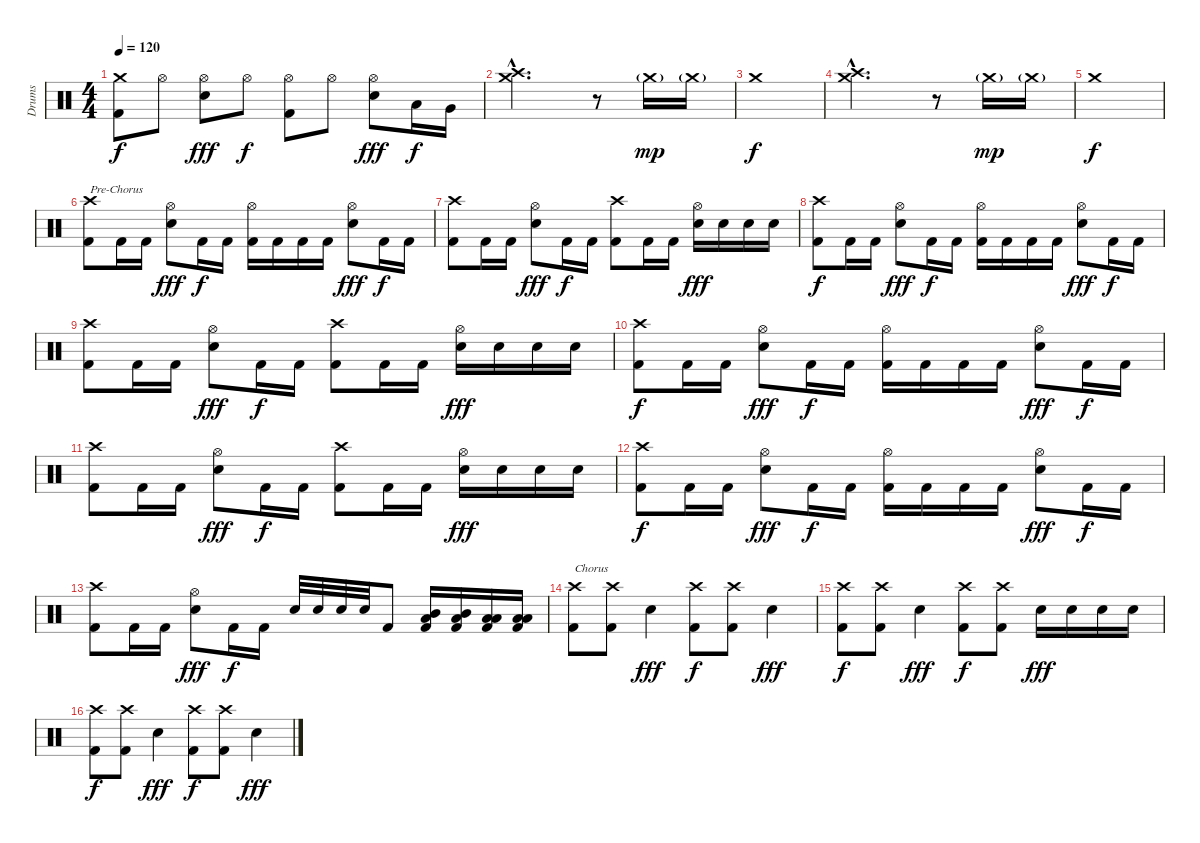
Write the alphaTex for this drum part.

\track ("Drums" "Drums") {instrument percussion}
\staff {score}
\articulation defaults
\ts (4 4)
\tempo 120
\clef neutral
\ks c
("Crash medium (hit)" "Kick (hit) 2").8{dy f} "Hi-Hat (open)".8 ("Hi-Hat (open)" "Snare (hit) 2").8{dy fff} "Hi-Hat (open)".8{dy f} ("Hi-Hat (open)" "Kick (hit) 2").8 "Hi-Hat (open)".8 ("Hi-Hat (open)" "Snare (hit) 2").8{dy fff} "Low Tom (hit)".16{dy f} "Very Low Tom (hit)".16 |
("Crash high (hit)"{hac} "Crash medium (hit)"{hac}).2{d} r.8 "Crash medium (hit)"{g}.16{dy mp} "Crash medium (hit)"{g}.16 |
"Crash medium (hit)".1{dy f} |
("Crash high (hit)"{hac} "Crash medium (hit)"{hac}).2{d} r.8 "Crash medium (hit)"{g}.16{dy mp} "Crash medium (hit)"{g}.16 |
"Crash medium (hit)".1{dy f} |
("Crash high (hit)" "Kick (hit) 2").8{txt "Pre-Chorus"} "Kick (hit) 2".16 "Kick (hit) 2".16 ("Hi-Hat (open)" "Snare (hit) 2").8{dy fff} "Kick (hit) 2".16{dy f} "Kick (hit) 2".16 ("Hi-Hat (open)" "Kick (hit) 2").16 "Kick (hit) 2".16 "Kick (hit) 2".16 "Kick (hit) 2".16 ("Hi-Hat (open)" "Snare (hit) 2").8{dy fff} "Kick (hit) 2".16{dy f} "Kick (hit) 2".16 |
("Crash high (hit)" "Kick (hit) 2").8 "Kick (hit) 2".16 "Kick (hit) 2".16 ("Hi-Hat (open)" "Snare (hit) 2").8{dy fff} "Kick (hit) 2".16{dy f} "Kick (hit) 2".16 ("Crash high (hit)" "Kick (hit) 2").8 "Kick (hit) 2".16 "Kick (hit) 2".16 ("Hi-Hat (open)" "Snare (hit) 2").16{dy fff} "Snare (hit) 2".16 "Snare (hit) 2".16 "Snare (hit) 2".16 |
("Crash high (hit)" "Kick (hit) 2").8{dy f} "Kick (hit) 2".16 "Kick (hit) 2".16 ("Hi-Hat (open)" "Snare (hit) 2").8{dy fff} "Kick (hit) 2".16{dy f} "Kick (hit) 2".16 ("Hi-Hat (open)" "Kick (hit) 2").16 "Kick (hit) 2".16 "Kick (hit) 2".16 "Kick (hit) 2".16 ("Hi-Hat (open)" "Snare (hit) 2").8{dy fff} "Kick (hit) 2".16{dy f} "Kick (hit) 2".16 |
("Crash high (hit)" "Kick (hit) 2").8 "Kick (hit) 2".16 "Kick (hit) 2".16 ("Hi-Hat (open)" "Snare (hit) 2").8{dy fff} "Kick (hit) 2".16{dy f} "Kick (hit) 2".16 ("Crash high (hit)" "Kick (hit) 2").8 "Kick (hit) 2".16 "Kick (hit) 2".16 ("Hi-Hat (open)" "Snare (hit) 2").16{dy fff} "Snare (hit) 2".16 "Snare (hit) 2".16 "Snare (hit) 2".16 |
("Crash high (hit)" "Kick (hit) 2").8{dy f} "Kick (hit) 2".16 "Kick (hit) 2".16 ("Hi-Hat (open)" "Snare (hit) 2").8{dy fff} "Kick (hit) 2".16{dy f} "Kick (hit) 2".16 ("Hi-Hat (open)" "Kick (hit) 2").16 "Kick (hit) 2".16 "Kick (hit) 2".16 "Kick (hit) 2".16 ("Hi-Hat (open)" "Snare (hit) 2").8{dy fff} "Kick (hit) 2".16{dy f} "Kick (hit) 2".16 |
("Crash high (hit)" "Kick (hit) 2").8 "Kick (hit) 2".16 "Kick (hit) 2".16 ("Hi-Hat (open)" "Snare (hit) 2").8{dy fff} "Kick (hit) 2".16{dy f} "Kick (hit) 2".16 ("Crash high (hit)" "Kick (hit) 2").8 "Kick (hit) 2".16 "Kick (hit) 2".16 ("Hi-Hat (open)" "Snare (hit) 2").16{dy fff} "Snare (hit) 2".16 "Snare (hit) 2".16 "Snare (hit) 2".16 |
("Crash high (hit)" "Kick (hit) 2").8{dy f} "Kick (hit) 2".16 "Kick (hit) 2".16 ("Hi-Hat (open)" "Snare (hit) 2").8{dy fff} "Kick (hit) 2".16{dy f} "Kick (hit) 2".16 ("Hi-Hat (open)" "Kick (hit) 2").16 "Kick (hit) 2".16 "Kick (hit) 2".16 "Kick (hit) 2".16 ("Hi-Hat (open)" "Snare (hit) 2").8{dy fff} "Kick (hit) 2".16{dy f} "Kick (hit) 2".16 |
("Crash high (hit)" "Kick (hit) 2").8 "Kick (hit) 2".16 "Kick (hit) 2".16 ("Hi-Hat (open)" "Snare (hit) 2").8{dy fff} "Kick (hit) 2".16{dy f} "Kick (hit) 2".16 "Snare (hit) 2".32 "Snare (hit) 2".32 "Snare (hit) 2".32 "Snare (hit) 2".32 "Kick (hit) 2".8 ("Mid Tom (hit)" "Low Tom (hit)" "Kick (hit) 2").16 ("Mid Tom (hit)" "Low Tom (hit)" "Kick (hit) 2").16 ("Low Tom (hit)" "Low Floor Tom (hit)" "Kick (hit) 2").16 ("Low Tom (hit)" "Low Floor Tom (hit)" "Kick (hit) 2").16 |
("Crash high (hit)" "Kick (hit) 2").8{txt "Chorus"} ("Crash high (hit)" "Kick (hit) 2").8 "Snare (hit) 2".4{dy fff} ("Crash high (hit)" "Kick (hit) 2").8{dy f} ("Crash high (hit)" "Kick (hit) 2").8 "Snare (hit) 2".4{dy fff} |
("Crash high (hit)" "Kick (hit) 2").8{dy f} ("Crash high (hit)" "Kick (hit) 2").8 "Snare (hit) 2".4{dy fff} ("Crash high (hit)" "Kick (hit) 2").8{dy f} ("Crash high (hit)" "Kick (hit) 2").8 "Snare (hit) 2".16{dy fff} "Snare (hit) 2".16 "Snare (hit) 2".16 "Snare (hit) 2".16 |
("Crash high (hit)" "Kick (hit) 2").8{dy f} ("Crash high (hit)" "Kick (hit) 2").8 "Snare (hit) 2".4{dy fff} ("Crash high (hit)" "Kick (hit) 2").8{dy f} ("Crash high (hit)" "Kick (hit) 2").8 "Snare (hit) 2".4{dy fff}
